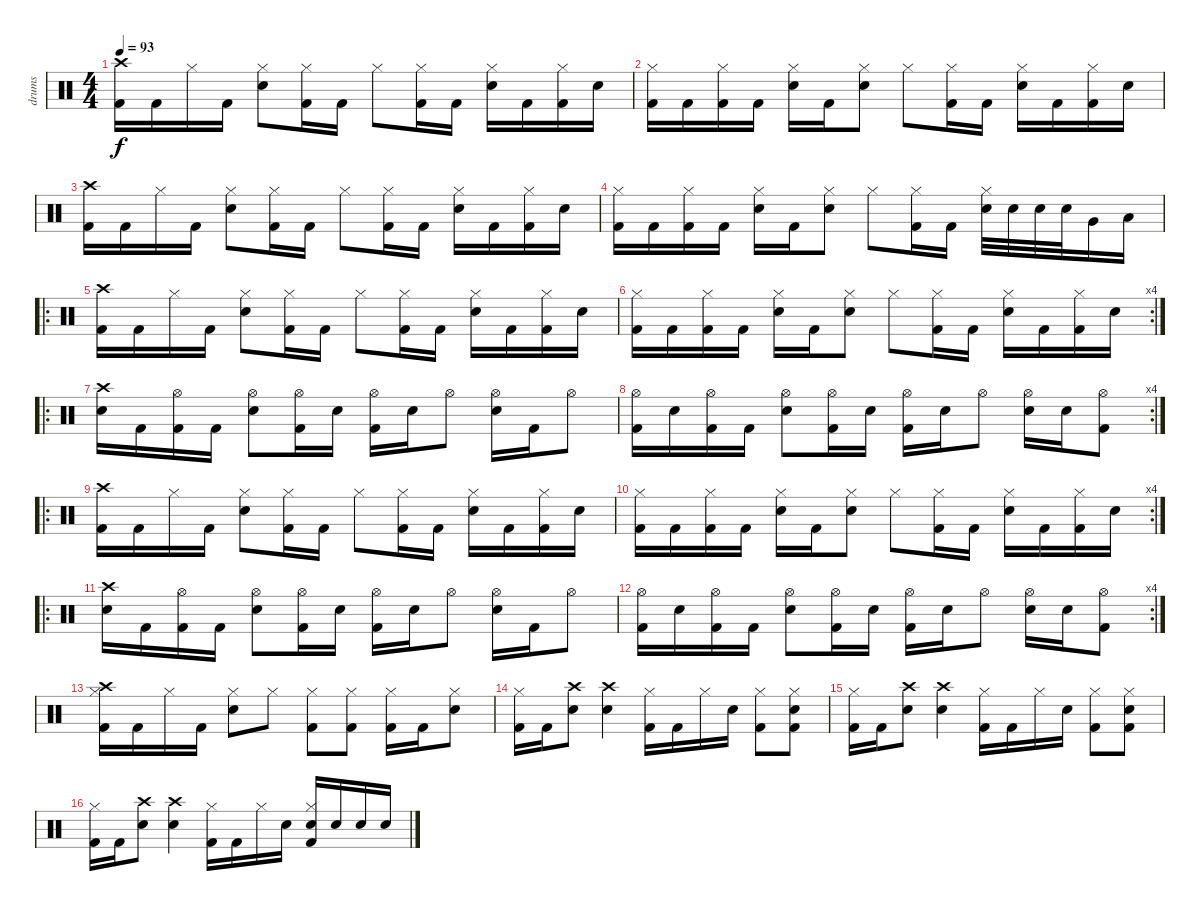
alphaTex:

\track ("drums" "drums") {instrument percussion}
\staff {score}
\articulation defaults
\ts (4 4)
\tempo 93
\clef neutral
\ks c
("Crash high (hit)" "Kick (hit) 2").16{dy f} "Kick (hit) 2".16 "Hi-Hat (closed)".16 "Kick (hit) 2".16 ("Hi-Hat (closed)" "Electric Snare (hit)").8 ("Hi-Hat (closed)" "Kick (hit) 2").16 "Kick (hit) 2".16 "Hi-Hat (closed)".8 ("Hi-Hat (closed)" "Kick (hit) 2").16 "Kick (hit) 2".16 ("Hi-Hat (closed)" "Electric Snare (hit)").16 "Kick (hit) 2".16 ("Hi-Hat (closed)" "Kick (hit) 2").16 "Electric Snare (hit)".16 |
("Hi-Hat (closed)" "Kick (hit) 2").16 "Kick (hit) 2".16 ("Hi-Hat (closed)" "Kick (hit) 2").16 "Kick (hit) 2".16 ("Hi-Hat (closed)" "Electric Snare (hit)").16 "Kick (hit) 2".16 ("Hi-Hat (closed)" "Electric Snare (hit)").8 "Hi-Hat (closed)".8 ("Hi-Hat (closed)" "Kick (hit) 2").16 "Kick (hit) 2".16 ("Hi-Hat (closed)" "Electric Snare (hit)").16 "Kick (hit) 2".16 ("Hi-Hat (closed)" "Kick (hit) 2").16 "Electric Snare (hit)".16 |
("Crash high (hit)" "Kick (hit) 2").16 "Kick (hit) 2".16 "Hi-Hat (closed)".16 "Kick (hit) 2".16 ("Hi-Hat (closed)" "Electric Snare (hit)").8 ("Hi-Hat (closed)" "Kick (hit) 2").16 "Kick (hit) 2".16 "Hi-Hat (closed)".8 ("Hi-Hat (closed)" "Kick (hit) 2").16 "Kick (hit) 2".16 ("Hi-Hat (closed)" "Electric Snare (hit)").16 "Kick (hit) 2".16 ("Hi-Hat (closed)" "Kick (hit) 2").16 "Electric Snare (hit)".16 |
("Hi-Hat (closed)" "Kick (hit) 2").16 "Kick (hit) 2".16 ("Hi-Hat (closed)" "Kick (hit) 2").16 "Kick (hit) 2".16 ("Hi-Hat (closed)" "Electric Snare (hit)").16 "Kick (hit) 2".16 ("Hi-Hat (closed)" "Electric Snare (hit)").8 "Hi-Hat (closed)".8 ("Hi-Hat (closed)" "Kick (hit) 2").16 "Kick (hit) 2".16 ("Hi-Hat (closed)" "Electric Snare (hit)").32 "Electric Snare (hit)".32 "Electric Snare (hit)".32 "Electric Snare (hit)".32 "Very Low Tom (hit)".16 "Low Floor Tom (hit)".16 |
\ro
("Crash high (hit)" "Kick (hit) 2").16 "Kick (hit) 2".16 "Hi-Hat (closed)".16 "Kick (hit) 2".16 ("Hi-Hat (closed)" "Electric Snare (hit)").8 ("Hi-Hat (closed)" "Kick (hit) 2").16 "Kick (hit) 2".16 "Hi-Hat (closed)".8 ("Hi-Hat (closed)" "Kick (hit) 2").16 "Kick (hit) 2".16 ("Hi-Hat (closed)" "Electric Snare (hit)").16 "Kick (hit) 2".16 ("Hi-Hat (closed)" "Kick (hit) 2").16 "Electric Snare (hit)".16 |
\rc 4
("Hi-Hat (closed)" "Kick (hit) 2").16 "Kick (hit) 2".16 ("Hi-Hat (closed)" "Kick (hit) 2").16 "Kick (hit) 2".16 ("Hi-Hat (closed)" "Electric Snare (hit)").16 "Kick (hit) 2".16 ("Hi-Hat (closed)" "Electric Snare (hit)").8 "Hi-Hat (closed)".8 ("Hi-Hat (closed)" "Kick (hit) 2").16 "Kick (hit) 2".16 ("Hi-Hat (closed)" "Electric Snare (hit)").16 "Kick (hit) 2".16 ("Hi-Hat (closed)" "Kick (hit) 2").16 "Electric Snare (hit)".16 |
\ro
("Crash high (hit)" "Electric Snare (hit)").16 "Kick (hit) 2".16 ("Hi-Hat (open)" "Kick (hit) 2").16 "Kick (hit) 2".16 ("Hi-Hat (open)" "Electric Snare (hit)").8 ("Hi-Hat (open)" "Kick (hit) 2").16 "Electric Snare (hit)".16 ("Hi-Hat (open)" "Kick (hit) 2").16 "Electric Snare (hit)".16 "Hi-Hat (open)".8 ("Hi-Hat (open)" "Electric Snare (hit)").16 "Kick (hit) 2".16 "Hi-Hat (open)".8 |
\rc 4
("Hi-Hat (open)" "Kick (hit) 2").16 "Electric Snare (hit)".16 ("Hi-Hat (open)" "Kick (hit) 2").16 "Kick (hit) 2".16 ("Hi-Hat (open)" "Electric Snare (hit)").8 ("Hi-Hat (open)" "Kick (hit) 2").16 "Electric Snare (hit)".16 ("Hi-Hat (open)" "Kick (hit) 2").16 "Electric Snare (hit)".16 "Hi-Hat (open)".8 ("Hi-Hat (open)" "Electric Snare (hit)").16 "Electric Snare (hit)".16 ("Hi-Hat (open)" "Kick (hit) 2").8 |
\ro
("Crash high (hit)" "Kick (hit) 2").16 "Kick (hit) 2".16 "Hi-Hat (closed)".16 "Kick (hit) 2".16 ("Hi-Hat (closed)" "Electric Snare (hit)").8 ("Hi-Hat (closed)" "Kick (hit) 2").16 "Kick (hit) 2".16 "Hi-Hat (closed)".8 ("Hi-Hat (closed)" "Kick (hit) 2").16 "Kick (hit) 2".16 ("Hi-Hat (closed)" "Electric Snare (hit)").16 "Kick (hit) 2".16 ("Hi-Hat (closed)" "Kick (hit) 2").16 "Electric Snare (hit)".16 |
\rc 4
("Hi-Hat (closed)" "Kick (hit) 2").16 "Kick (hit) 2".16 ("Hi-Hat (closed)" "Kick (hit) 2").16 "Kick (hit) 2".16 ("Hi-Hat (closed)" "Electric Snare (hit)").16 "Kick (hit) 2".16 ("Hi-Hat (closed)" "Electric Snare (hit)").8 "Hi-Hat (closed)".8 ("Hi-Hat (closed)" "Kick (hit) 2").16 "Kick (hit) 2".16 ("Hi-Hat (closed)" "Electric Snare (hit)").16 "Kick (hit) 2".16 ("Hi-Hat (closed)" "Kick (hit) 2").16 "Electric Snare (hit)".16 |
\ro
("Crash high (hit)" "Electric Snare (hit)").16 "Kick (hit) 2".16 ("Hi-Hat (open)" "Kick (hit) 2").16 "Kick (hit) 2".16 ("Hi-Hat (open)" "Electric Snare (hit)").8 ("Hi-Hat (open)" "Kick (hit) 2").16 "Electric Snare (hit)".16 ("Hi-Hat (open)" "Kick (hit) 2").16 "Electric Snare (hit)".16 "Hi-Hat (open)".8 ("Hi-Hat (open)" "Electric Snare (hit)").16 "Kick (hit) 2".16 "Hi-Hat (open)".8 |
\rc 4
("Hi-Hat (open)" "Kick (hit) 2").16 "Electric Snare (hit)".16 ("Hi-Hat (open)" "Kick (hit) 2").16 "Kick (hit) 2".16 ("Hi-Hat (open)" "Electric Snare (hit)").8 ("Hi-Hat (open)" "Kick (hit) 2").16 "Electric Snare (hit)".16 ("Hi-Hat (open)" "Kick (hit) 2").16 "Electric Snare (hit)".16 "Hi-Hat (open)".8 ("Hi-Hat (open)" "Electric Snare (hit)").16 "Electric Snare (hit)".16 ("Hi-Hat (open)" "Kick (hit) 2").8 |
("Crash high (hit)" "Hi-Hat (closed)" "Kick (hit) 2").16 "Kick (hit) 2".16 "Hi-Hat (closed)".16 "Kick (hit) 2".16 ("Hi-Hat (closed)" "Electric Snare (hit)").8 "Hi-Hat (closed)".8 ("Hi-Hat (closed)" "Kick (hit) 2").8 ("Hi-Hat (closed)" "Kick (hit) 2").8 ("Hi-Hat (closed)" "Kick (hit) 2").16 "Kick (hit) 2".16 ("Hi-Hat (closed)" "Electric Snare (hit)").8 |
("Hi-Hat (closed)" "Kick (hit) 2").16 "Kick (hit) 2".16 ("Crash high (hit)" "Electric Snare (hit)").8 ("Crash high (hit)" "Electric Snare (hit)").4 ("Hi-Hat (closed)" "Kick (hit) 2").16 "Kick (hit) 2".16 "Hi-Hat (closed)".16 "Electric Snare (hit)".16 ("Hi-Hat (closed)" "Kick (hit) 2").8 ("Hi-Hat (closed)" "Electric Snare (hit)" "Kick (hit) 2").8 |
("Hi-Hat (closed)" "Kick (hit) 2").16 "Kick (hit) 2".16 ("Crash high (hit)" "Electric Snare (hit)").8 ("Crash high (hit)" "Electric Snare (hit)").4 ("Hi-Hat (closed)" "Kick (hit) 2").16 "Kick (hit) 2".16 "Hi-Hat (closed)".16 "Electric Snare (hit)".16 ("Hi-Hat (closed)" "Kick (hit) 2").8 ("Hi-Hat (closed)" "Electric Snare (hit)" "Kick (hit) 2").8 |
("Hi-Hat (closed)" "Kick (hit) 2").16 "Kick (hit) 2".16 ("Crash high (hit)" "Electric Snare (hit)").8 ("Crash high (hit)" "Electric Snare (hit)").4 ("Hi-Hat (closed)" "Kick (hit) 2").16 "Kick (hit) 2".16 "Hi-Hat (closed)".16 "Electric Snare (hit)".16 ("Hi-Hat (closed)" "Electric Snare (hit)" "Kick (hit) 2").16 "Electric Snare (hit)".16 "Electric Snare (hit)".16 "Electric Snare (hit)".16
